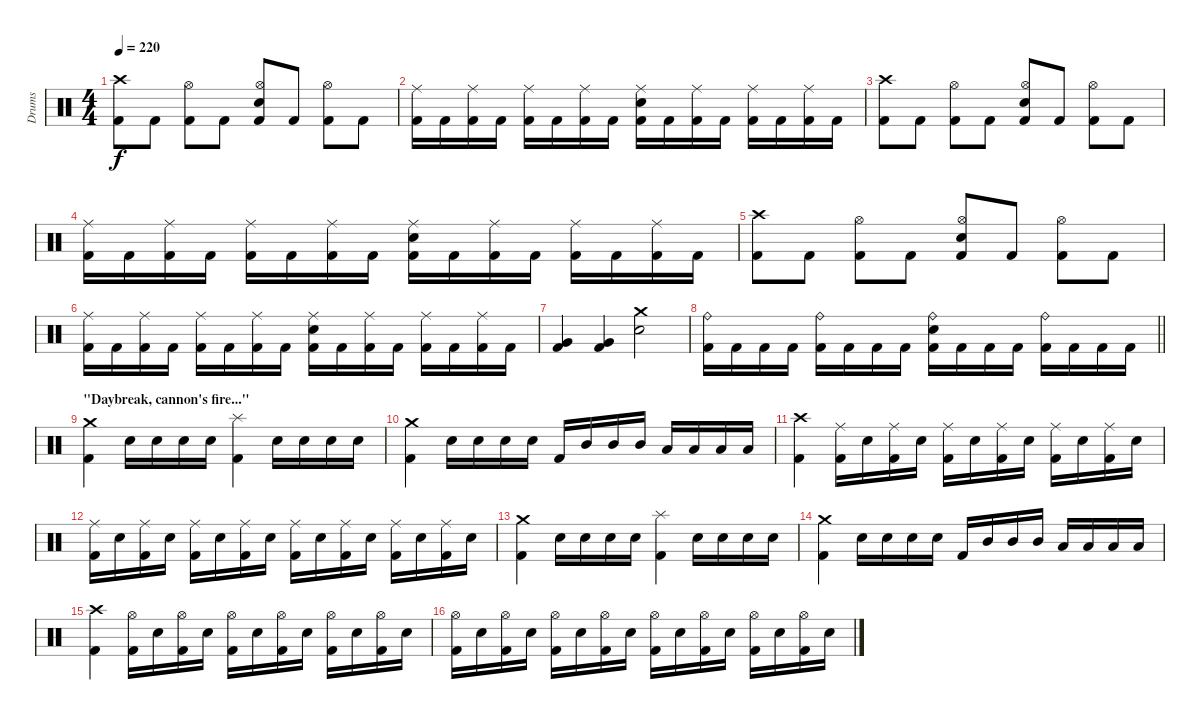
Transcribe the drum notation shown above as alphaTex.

\track ("Drums" "Drums") {instrument percussion}
\staff {score}
\articulation defaults
\ts (4 4)
\tempo 220
\clef neutral
\ks c
("Crash high (hit)" "Kick (hit) 2").8{dy f} "Kick (hit) 2".8 ("Hi-Hat (open)" "Kick (hit) 2").8 "Kick (hit) 2".8 ("Hi-Hat (open)" "Snare (hit) 2" "Kick (hit) 2").8 "Kick (hit) 2".8 ("Hi-Hat (open)" "Kick (hit) 2").8 "Kick (hit) 2".8 |
("Ride (middle)" "Kick (hit) 2").16 "Kick (hit) 2".16 ("Ride (middle)" "Kick (hit) 2").16 "Kick (hit) 2".16 ("Ride (middle)" "Kick (hit) 2").16 "Kick (hit) 2".16 ("Ride (middle)" "Kick (hit) 2").16 "Kick (hit) 2".16 ("Ride (middle)" "Snare (hit) 2" "Kick (hit) 2").16 "Kick (hit) 2".16 ("Ride (middle)" "Kick (hit) 2").16 "Kick (hit) 2".16 ("Ride (middle)" "Kick (hit) 2").16 "Kick (hit) 2".16 ("Ride (middle)" "Kick (hit) 2").16 "Kick (hit) 2".16 |
("Crash high (hit)" "Kick (hit) 2").8 "Kick (hit) 2".8 ("Hi-Hat (open)" "Kick (hit) 2").8 "Kick (hit) 2".8 ("Hi-Hat (open)" "Snare (hit) 2" "Kick (hit) 2").8 "Kick (hit) 2".8 ("Hi-Hat (open)" "Kick (hit) 2").8 "Kick (hit) 2".8 |
("Ride (middle)" "Kick (hit) 2").16 "Kick (hit) 2".16 ("Ride (middle)" "Kick (hit) 2").16 "Kick (hit) 2".16 ("Ride (middle)" "Kick (hit) 2").16 "Kick (hit) 2".16 ("Ride (middle)" "Kick (hit) 2").16 "Kick (hit) 2".16 ("Ride (middle)" "Snare (hit) 2" "Kick (hit) 2").16 "Kick (hit) 2".16 ("Ride (middle)" "Kick (hit) 2").16 "Kick (hit) 2".16 ("Ride (middle)" "Kick (hit) 2").16 "Kick (hit) 2".16 ("Ride (middle)" "Kick (hit) 2").16 "Kick (hit) 2".16 |
("Crash high (hit)" "Kick (hit) 2").8 "Kick (hit) 2".8 ("Hi-Hat (open)" "Kick (hit) 2").8 "Kick (hit) 2".8 ("Hi-Hat (open)" "Snare (hit) 2" "Kick (hit) 2").8 "Kick (hit) 2".8 ("Hi-Hat (open)" "Kick (hit) 2").8 "Kick (hit) 2".8 |
("Ride (middle)" "Kick (hit) 2").16 "Kick (hit) 2".16 ("Ride (middle)" "Kick (hit) 2").16 "Kick (hit) 2".16 ("Ride (middle)" "Kick (hit) 2").16 "Kick (hit) 2".16 ("Ride (middle)" "Kick (hit) 2").16 "Kick (hit) 2".16 ("Ride (middle)" "Snare (hit) 2" "Kick (hit) 2").16 "Kick (hit) 2".16 ("Ride (middle)" "Kick (hit) 2").16 "Kick (hit) 2".16 ("Ride (middle)" "Kick (hit) 2").16 "Kick (hit) 2".16 ("Ride (middle)" "Kick (hit) 2").16 "Kick (hit) 2".16 |
("Very Low Tom (hit)" "Kick (hit) 2").4 ("Very Low Tom (hit)" "Kick (hit) 2").4 ("Crash medium (hit)" "Snare (hit) 2").2 |
\barLineRight lightlight
("Ride (bell)" "Kick (hit) 2").16 "Kick (hit) 2".16 "Kick (hit) 2".16 "Kick (hit) 2".16 ("Ride (bell)" "Kick (hit) 2").16 "Kick (hit) 2".16 "Kick (hit) 2".16 "Kick (hit) 2".16 ("Ride (bell)" "Snare (hit) 2" "Kick (hit) 2").16 "Kick (hit) 2".16 "Kick (hit) 2".16 "Kick (hit) 2".16 ("Ride (bell)" "Kick (hit) 2").16 "Kick (hit) 2".16 "Kick (hit) 2".16 "Kick (hit) 2".16 |
\section ("" "\"Daybreak, cannon's fire...\"")
("Crash medium (hit)" "Kick (hit) 2").4 "Snare (hit) 2".16 "Snare (hit) 2".16 "Snare (hit) 2".16 "Snare (hit) 2".16 ("Splash (hit)" "Kick (hit) 2").4 "Snare (hit) 2".16 "Snare (hit) 2".16 "Snare (hit) 2".16 "Snare (hit) 2".16 |
("Crash medium (hit)" "Kick (hit) 2").4 "Snare (hit) 2".16 "Snare (hit) 2".16 "Snare (hit) 2".16 "Snare (hit) 2".16 "Kick (hit) 2".16 "Mid Tom (hit)".16 "Mid Tom (hit)".16 "Mid Tom (hit)".16 "Low Tom (hit)".16 "Low Tom (hit)".16 "Low Tom (hit)".16 "Low Tom (hit)".16 |
("Crash high (hit)" "Kick (hit) 2").4 ("Ride (middle)" "Kick (hit) 2").16 "Snare (hit) 2".16 ("Ride (middle)" "Kick (hit) 2").16 "Snare (hit) 2".16 ("Ride (middle)" "Kick (hit) 2").16 "Snare (hit) 2".16 ("Ride (middle)" "Kick (hit) 2").16 "Snare (hit) 2".16 ("Ride (middle)" "Kick (hit) 2").16 "Snare (hit) 2".16 ("Ride (middle)" "Kick (hit) 2").16 "Snare (hit) 2".16 |
("Ride (middle)" "Kick (hit) 2").16 "Snare (hit) 2".16 ("Ride (middle)" "Kick (hit) 2").16 "Snare (hit) 2".16 ("Ride (middle)" "Kick (hit) 2").16 "Snare (hit) 2".16 ("Ride (middle)" "Kick (hit) 2").16 "Snare (hit) 2".16 ("Ride (middle)" "Kick (hit) 2").16 "Snare (hit) 2".16 ("Ride (middle)" "Kick (hit) 2").16 "Snare (hit) 2".16 ("Ride (middle)" "Kick (hit) 2").16 "Snare (hit) 2".16 ("Ride (middle)" "Kick (hit) 2").16 "Snare (hit) 2".16 |
("Crash medium (hit)" "Kick (hit) 2").4 "Snare (hit) 2".16 "Snare (hit) 2".16 "Snare (hit) 2".16 "Snare (hit) 2".16 ("Splash (hit)" "Kick (hit) 2").4 "Snare (hit) 2".16 "Snare (hit) 2".16 "Snare (hit) 2".16 "Snare (hit) 2".16 |
("Crash medium (hit)" "Kick (hit) 2").4 "Snare (hit) 2".16 "Snare (hit) 2".16 "Snare (hit) 2".16 "Snare (hit) 2".16 "Kick (hit) 2".16 "Mid Tom (hit)".16 "Mid Tom (hit)".16 "Mid Tom (hit)".16 "Low Tom (hit)".16 "Low Tom (hit)".16 "Low Tom (hit)".16 "Low Tom (hit)".16 |
("Crash high (hit)" "Kick (hit) 2").4 ("Hi-Hat (open)" "Kick (hit) 2").16 "Snare (hit) 2".16 ("Hi-Hat (open)" "Kick (hit) 2").16 "Snare (hit) 2".16 ("Hi-Hat (open)" "Kick (hit) 2").16 "Snare (hit) 2".16 ("Hi-Hat (open)" "Kick (hit) 2").16 "Snare (hit) 2".16 ("Hi-Hat (open)" "Kick (hit) 2").16 "Snare (hit) 2".16 ("Hi-Hat (open)" "Kick (hit) 2").16 "Snare (hit) 2".16 |
("Hi-Hat (open)" "Kick (hit) 2").16 "Snare (hit) 2".16 ("Hi-Hat (open)" "Kick (hit) 2").16 "Snare (hit) 2".16 ("Hi-Hat (open)" "Kick (hit) 2").16 "Snare (hit) 2".16 ("Hi-Hat (open)" "Kick (hit) 2").16 "Snare (hit) 2".16 ("Hi-Hat (open)" "Kick (hit) 2").16 "Snare (hit) 2".16 ("Hi-Hat (open)" "Kick (hit) 2").16 "Snare (hit) 2".16 ("Hi-Hat (open)" "Kick (hit) 2").16 "Snare (hit) 2".16 ("Hi-Hat (open)" "Kick (hit) 2").16 "Snare (hit) 2".16
